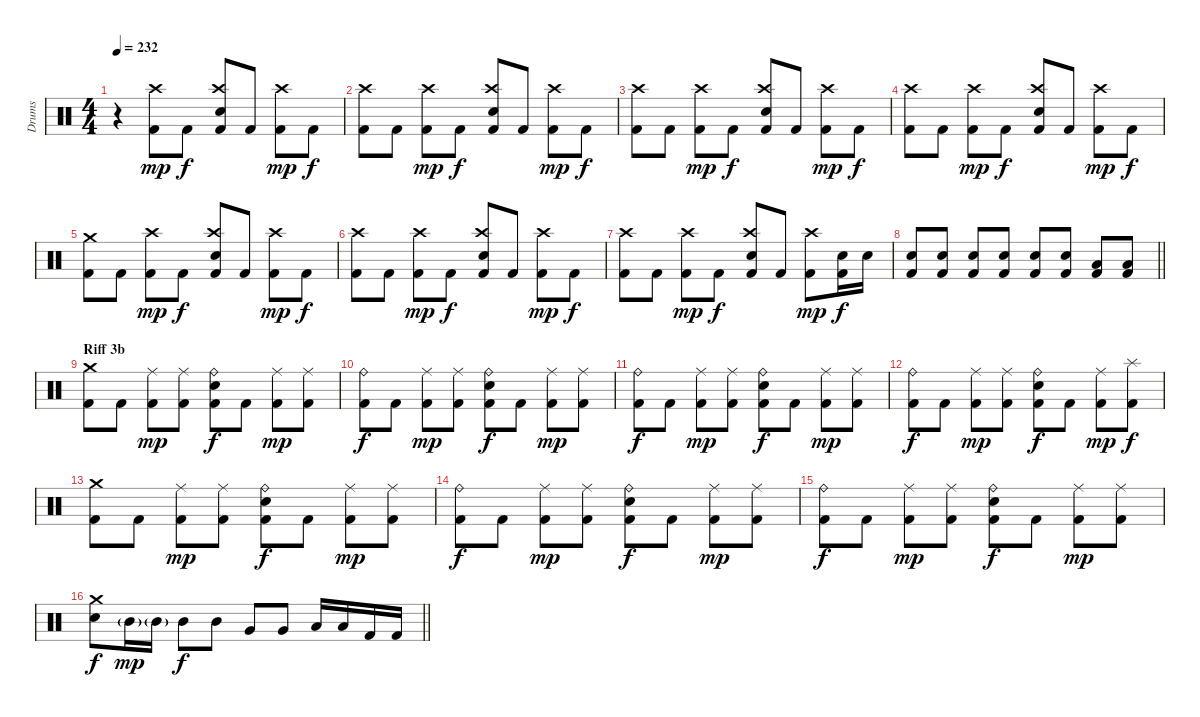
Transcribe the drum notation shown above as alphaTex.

\track ("Drums" "Drums") {instrument percussion}
\staff {score}
\articulation defaults
\ts (4 4)
\tempo 232
\clef neutral
\ks c
r.4{dy f} ("Kick (hit) 2" "Crash high (hit)").8{dy mp} "Kick (hit) 2".8{dy f} ("Kick (hit) 2" "Crash high (hit)" "Electric Snare (hit)").8 "Kick (hit) 2".8 ("Kick (hit) 2" "Crash high (hit)").8{dy mp} "Kick (hit) 2".8{dy f} |
("Kick (hit) 2" "Crash high (hit)").8 "Kick (hit) 2".8 ("Kick (hit) 2" "Crash high (hit)").8{dy mp} "Kick (hit) 2".8{dy f} ("Kick (hit) 2" "Crash high (hit)" "Electric Snare (hit)").8 "Kick (hit) 2".8 ("Kick (hit) 2" "Crash high (hit)").8{dy mp} "Kick (hit) 2".8{dy f} |
("Kick (hit) 2" "Crash high (hit)").8 "Kick (hit) 2".8 ("Kick (hit) 2" "Crash high (hit)").8{dy mp} "Kick (hit) 2".8{dy f} ("Kick (hit) 2" "Crash high (hit)" "Electric Snare (hit)").8 "Kick (hit) 2".8 ("Kick (hit) 2" "Crash high (hit)").8{dy mp} "Kick (hit) 2".8{dy f} |
("Kick (hit) 2" "Crash high (hit)").8 "Kick (hit) 2".8 ("Kick (hit) 2" "Crash high (hit)").8{dy mp} "Kick (hit) 2".8{dy f} ("Kick (hit) 2" "Crash high (hit)" "Electric Snare (hit)").8 "Kick (hit) 2".8 ("Kick (hit) 2" "Crash high (hit)").8{dy mp} "Kick (hit) 2".8{dy f} |
("Kick (hit) 2" "Crash medium (hit)").8 "Kick (hit) 2".8 ("Kick (hit) 2" "Crash high (hit)").8{dy mp} "Kick (hit) 2".8{dy f} ("Kick (hit) 2" "Crash high (hit)" "Electric Snare (hit)").8 "Kick (hit) 2".8 ("Kick (hit) 2" "Crash high (hit)").8{dy mp} "Kick (hit) 2".8{dy f} |
("Kick (hit) 2" "Crash high (hit)").8 "Kick (hit) 2".8 ("Kick (hit) 2" "Crash high (hit)").8{dy mp} "Kick (hit) 2".8{dy f} ("Kick (hit) 2" "Crash high (hit)" "Electric Snare (hit)").8 "Kick (hit) 2".8 ("Kick (hit) 2" "Crash high (hit)").8{dy mp} "Kick (hit) 2".8{dy f} |
("Kick (hit) 2" "Crash high (hit)").8 "Kick (hit) 2".8 ("Kick (hit) 2" "Crash high (hit)").8{dy mp} "Kick (hit) 2".8{dy f} ("Kick (hit) 2" "Crash high (hit)" "Electric Snare (hit)").8 "Kick (hit) 2".8 ("Kick (hit) 2" "Crash high (hit)").8{dy mp} ("Kick (hit) 2" "Electric Snare (hit)").16{dy f} "Electric Snare (hit)".16 |
\barLineRight lightlight
("Electric Snare (hit)" "Kick (hit) 2").8 ("Electric Snare (hit)" "Kick (hit) 2").8 ("Electric Snare (hit)" "Kick (hit) 2").8 ("Electric Snare (hit)" "Kick (hit) 2").8 ("Electric Snare (hit)" "Kick (hit) 2").8 ("Electric Snare (hit)" "Kick (hit) 2").8 ("Low Tom (hit)" "Kick (hit) 2").8 ("Low Tom (hit)" "Kick (hit) 2").8 |
\section ("" "Riff 3b")
("Crash medium (hit)" "Kick (hit) 2").8 "Kick (hit) 2".8 ("Ride (middle)" "Kick (hit) 2").8{dy mp} ("Ride (middle)" "Kick (hit) 2").8 ("Ride (bell)" "Electric Snare (hit)" "Kick (hit) 2").8{dy f} "Kick (hit) 2".8 ("Ride (middle)" "Kick (hit) 2").8{dy mp} ("Ride (middle)" "Kick (hit) 2").8 |
("Ride (bell)" "Kick (hit) 2").8{dy f} "Kick (hit) 2".8 ("Ride (middle)" "Kick (hit) 2").8{dy mp} ("Ride (middle)" "Kick (hit) 2").8 ("Ride (bell)" "Electric Snare (hit)" "Kick (hit) 2").8{dy f} "Kick (hit) 2".8 ("Ride (middle)" "Kick (hit) 2").8{dy mp} ("Ride (middle)" "Kick (hit) 2").8 |
("Ride (bell)" "Kick (hit) 2").8{dy f} "Kick (hit) 2".8 ("Ride (middle)" "Kick (hit) 2").8{dy mp} ("Ride (middle)" "Kick (hit) 2").8 ("Ride (bell)" "Electric Snare (hit)" "Kick (hit) 2").8{dy f} "Kick (hit) 2".8 ("Ride (middle)" "Kick (hit) 2").8{dy mp} ("Ride (middle)" "Kick (hit) 2").8 |
("Ride (bell)" "Kick (hit) 2").8{dy f} "Kick (hit) 2".8 ("Ride (middle)" "Kick (hit) 2").8{dy mp} ("Ride (middle)" "Kick (hit) 2").8 ("Ride (bell)" "Electric Snare (hit)" "Kick (hit) 2").8{dy f} "Kick (hit) 2".8 ("Ride (middle)" "Kick (hit) 2").8{dy mp} ("Splash (hit)" "Kick (hit) 2").8{dy f} |
("Crash medium (hit)" "Kick (hit) 2").8 "Kick (hit) 2".8 ("Ride (middle)" "Kick (hit) 2").8{dy mp} ("Ride (middle)" "Kick (hit) 2").8 ("Ride (bell)" "Electric Snare (hit)" "Kick (hit) 2").8{dy f} "Kick (hit) 2".8 ("Ride (middle)" "Kick (hit) 2").8{dy mp} ("Ride (middle)" "Kick (hit) 2").8 |
("Ride (bell)" "Kick (hit) 2").8{dy f} "Kick (hit) 2".8 ("Ride (middle)" "Kick (hit) 2").8{dy mp} ("Ride (middle)" "Kick (hit) 2").8 ("Ride (bell)" "Electric Snare (hit)" "Kick (hit) 2").8{dy f} "Kick (hit) 2".8 ("Ride (middle)" "Kick (hit) 2").8{dy mp} ("Ride (middle)" "Kick (hit) 2").8 |
("Ride (bell)" "Kick (hit) 2").8{dy f} "Kick (hit) 2".8 ("Ride (middle)" "Kick (hit) 2").8{dy mp} ("Ride (middle)" "Kick (hit) 2").8 ("Ride (bell)" "Electric Snare (hit)" "Kick (hit) 2").8{dy f} "Kick (hit) 2".8 ("Ride (middle)" "Kick (hit) 2").8{dy mp} ("Ride (middle)" "Kick (hit) 2").8 |
\barLineRight lightlight
("Electric Snare (hit)" "Crash medium (hit)").8{dy f} "Mid Tom (hit)"{g}.16{dy mp} "Mid Tom (hit)"{g}.16 "Mid Tom (hit)".8{dy f} "Mid Tom (hit)".8 "Very Low Tom (hit)".8 "Very Low Tom (hit)".8 "Low Floor Tom (hit)".16 "Low Floor Tom (hit)".16 "Kick (hit) 2".16 "Kick (hit) 2".16
